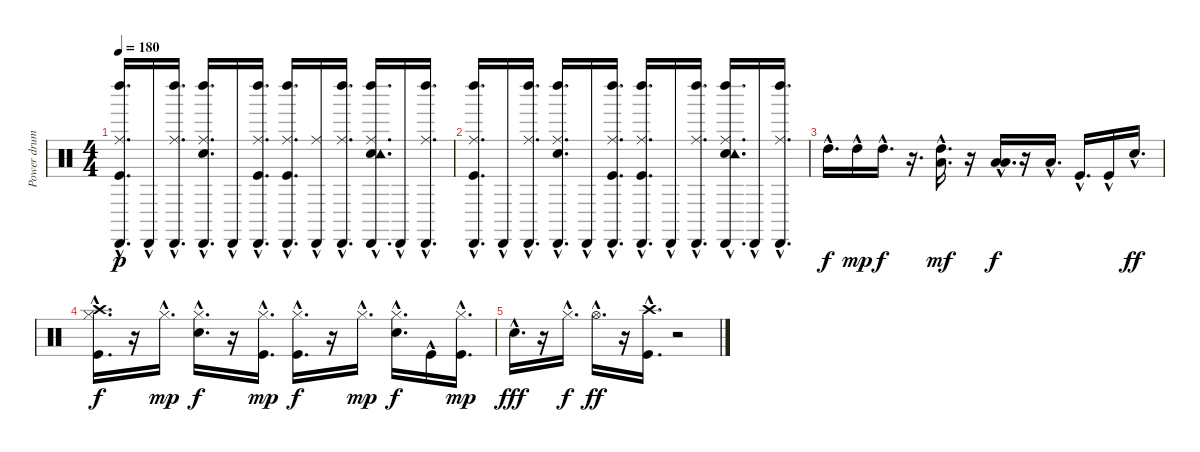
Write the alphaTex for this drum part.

\track ("Power drum" "Power drum") {instrument percussion}
\staff {score}
\articulation defaults
\ts (4 4)
\tempo 180
\clef neutral
\ks c
("Kick (hit)"{hac} "Ride (middle)"{hac} "Left Maraca (hit)"{hac} "Cabasa (hit)"{hac}).16{d dy p} "Cabasa (hit)"{hac}.16 ("Ride (middle)"{hac} "Left Maraca (hit)"{hac} "Cabasa (hit)"{hac}).16{d} ("Snare (hit) 2"{hac} "Ride (middle)"{hac} "Left Maraca (hit)"{hac} "Cabasa (hit)"{hac}).16{d} "Cabasa (hit)"{hac}.16 ("Kick (hit)"{hac} "Ride (middle)"{hac} "Left Maraca (hit)"{hac} "Cabasa (hit)"{hac}).16{d} ("Kick (hit)"{hac} "Ride (middle)"{hac} "Left Maraca (hit)"{hac} "Cabasa (hit)"{hac}).16{d} ("Ride (middle)"{hac} "Cabasa (hit)"{hac}).16 ("Ride (middle)"{hac} "Left Maraca (hit)"{hac} "Cabasa (hit)"{hac}).16{d} ("Snare (hit) 2"{hac} "Ride (middle)"{hac} "Tambourine (hit)"{hac} "Left Maraca (hit)"{hac} "Cabasa (hit)"{hac}).16{d} "Cabasa (hit)"{hac}.16 ("Ride (middle)"{hac} "Left Maraca (hit)"{hac} "Cabasa (hit)"{hac}).16{d} |
("Kick (hit)"{hac} "Ride (middle)"{hac} "Left Maraca (hit)"{hac} "Cabasa (hit)"{hac}).16{d} "Cabasa (hit)"{hac}.16 ("Ride (middle)"{hac} "Left Maraca (hit)"{hac} "Cabasa (hit)"{hac}).16{d} ("Snare (hit) 2"{hac} "Ride (middle)"{hac} "Left Maraca (hit)"{hac} "Cabasa (hit)"{hac}).16{d} "Cabasa (hit)"{hac}.16 ("Kick (hit)"{hac} "Ride (middle)"{hac} "Left Maraca (hit)"{hac} "Cabasa (hit)"{hac}).16{d} ("Kick (hit)"{hac} "Ride (middle)"{hac} "Left Maraca (hit)"{hac} "Cabasa (hit)"{hac}).16{d} "Cabasa (hit)"{hac}.16 ("Ride (middle)"{hac} "Left Maraca (hit)"{hac} "Cabasa (hit)"{hac}).16{d} ("Snare (hit) 2"{hac} "Ride (middle)"{hac} "Tambourine (hit)"{hac} "Left Maraca (hit)"{hac} "Cabasa (hit)"{hac}).16{d} "Cabasa (hit)"{hac}.16 ("Ride (middle)"{hac} "Left Maraca (hit)"{hac} "Cabasa (hit)"{hac}).16{d} |
"High Tom (hit)"{hac}.16{d dy f} "High Tom (hit)"{hac}.16{dy mp} "High Tom (hit)"{hac}.16{d dy f} r.16{d} ("Low Tom (hit)"{hac} "High Tom (hit)"{hac}).16{d dy mf} r.16 ("Low Floor Tom (hit)"{hac} "Low Tom (hit)"{hac}).16{d dy f} r.16 "Low Floor Tom (hit)"{hac}.16{d} "Kick (hit)"{hac}.16{d} "Kick (hit)"{hac}.16 "Snare (hit) 2"{hac}.16{d dy ff} |
("Kick (hit)"{hac} "Hi-Hat (closed)"{hac} "Crash high (hit)"{hac}).16{d dy f} r.16 "Hi-Hat (closed)"{hac}.16{d dy mp} ("Snare (hit) 2"{hac} "Hi-Hat (closed)"{hac}).16{d dy f} r.16 ("Kick (hit)"{hac} "Hi-Hat (closed)"{hac}).16{d dy mp} ("Kick (hit)"{hac} "Hi-Hat (closed)"{hac}).16{d dy f} r.16 "Hi-Hat (closed)"{hac}.16{d dy mp} ("Snare (hit) 2"{hac} "Hi-Hat (closed)"{hac}).16{d dy f} "Kick (hit)"{hac}.16 ("Kick (hit)"{hac} "Hi-Hat (closed)"{hac}).16{d dy mp} |
"Snare (hit) 2"{hac}.16{d dy fff} r.16 "Hi-Hat (closed)"{hac}.16{d dy f} "Hi-Hat (open)"{hac}.16{d dy ff} r.16 ("Kick (hit)"{hac} "Crash high (hit)"{hac}).16{d} r.2
